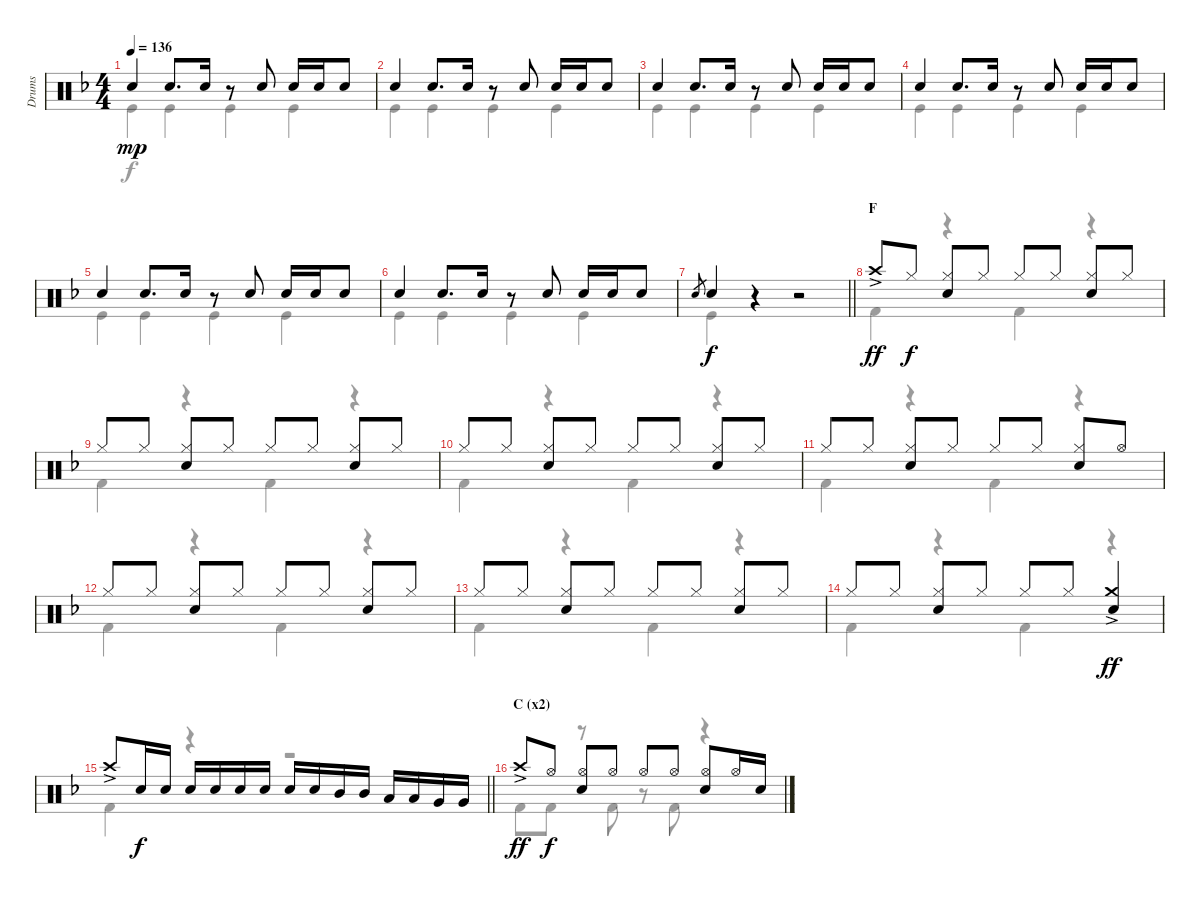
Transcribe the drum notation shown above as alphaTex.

\track ("Drums" "Drums") {instrument percussion}
\staff {score}
\articulation defaults
\voice
\ts (4 4)
\tempo 136
\clef neutral
\ks f "Electric Snare (hit)".4{dy mp} "Electric Snare (hit)".8{d} "Electric Snare (hit)".16
r.8 "Electric Snare (hit)".8 "Electric Snare (hit)".16 "Electric Snare (hit)".16 "Electric Snare (hit)".8 |
"Electric Snare (hit)".4 "Electric Snare (hit)".8{d} "Electric Snare (hit)".16 r.8 "Electric Snare (hit)".8 "Electric Snare (hit)".16 "Electric Snare (hit)".16 "Electric Snare (hit)".8 |
"Electric Snare (hit)".4 "Electric Snare (hit)".8{d} "Electric Snare (hit)".16 r.8 "Electric Snare (hit)".8 "Electric Snare (hit)".16 "Electric Snare (hit)".16 "Electric Snare (hit)".8 |
"Electric Snare (hit)".4 "Electric Snare (hit)".8{d} "Electric Snare (hit)".16 r.8 "Electric Snare (hit)".8 "Electric Snare (hit)".16 "Electric Snare (hit)".16 "Electric Snare (hit)".8 |
"Electric Snare (hit)".4 "Electric Snare (hit)".8{d} "Electric Snare (hit)".16 r.8 "Electric Snare (hit)".8 "Electric Snare (hit)".16 "Electric Snare (hit)".16 "Electric Snare (hit)".8 |
"Electric Snare (hit)".4 "Electric Snare (hit)".8{d} "Electric Snare (hit)".16 r.8 "Electric Snare (hit)".8 "Electric Snare (hit)".16 "Electric Snare (hit)".16 "Electric Snare (hit)".8 |
\barLineRight lightlight "Snare (hit) 2".8{gr} "Snare (hit) 2".4{dy f}
r.4 r.2 |
\section ("" "F")
"Crash high (hit)"{ac}.8{dy ff} "Hi-Hat (closed)".8{dy f} ("Hi-Hat (closed)" "Snare (hit) 2").8 "Hi-Hat (closed)".8 "Hi-Hat (closed)".8 "Hi-Hat (closed)".8 ("Hi-Hat (closed)" "Snare (hit) 2").8 "Hi-Hat (closed)".8 |
"Hi-Hat (closed)".8 "Hi-Hat (closed)".8 ("Hi-Hat (closed)" "Snare (hit) 2").8 "Hi-Hat (closed)".8 "Hi-Hat (closed)".8 "Hi-Hat (closed)".8 ("Hi-Hat (closed)" "Snare (hit) 2").8 "Hi-Hat (closed)".8 |
"Hi-Hat (closed)".8 "Hi-Hat (closed)".8 ("Hi-Hat (closed)" "Snare (hit) 2").8 "Hi-Hat (closed)".8 "Hi-Hat (closed)".8 "Hi-Hat (closed)".8 ("Hi-Hat (closed)" "Snare (hit) 2").8 "Hi-Hat (closed)".8 |
"Hi-Hat (closed)".8 "Hi-Hat (closed)".8 ("Hi-Hat (closed)" "Snare (hit) 2").8 "Hi-Hat (closed)".8 "Hi-Hat (closed)".8 "Hi-Hat (closed)".8 ("Hi-Hat (closed)" "Snare (hit) 2").8 "Hi-Hat (open)".8 |
"Hi-Hat (closed)".8 "Hi-Hat (closed)".8 ("Hi-Hat (closed)" "Snare (hit) 2").8 "Hi-Hat (closed)".8 "Hi-Hat (closed)".8 "Hi-Hat (closed)".8 ("Hi-Hat (closed)" "Snare (hit) 2").8 "Hi-Hat (closed)".8 |
"Hi-Hat (closed)".8 "Hi-Hat (closed)".8 ("Hi-Hat (closed)" "Snare (hit) 2").8 "Hi-Hat (closed)".8 "Hi-Hat (closed)".8 "Hi-Hat (closed)".8 ("Hi-Hat (closed)" "Snare (hit) 2").8 "Hi-Hat (closed)".8 |
"Hi-Hat (closed)".8 "Hi-Hat (closed)".8 ("Hi-Hat (closed)" "Snare (hit) 2").8 "Hi-Hat (closed)".8 "Hi-Hat (closed)".8 "Hi-Hat (closed)".8 ("Crash medium (hit)"{ac} "Snare (hit) 2").4{dy ff} |
\barLineRight lightlight "Crash high (hit)"{ac}.8 "Snare (hit) 2".16{dy f} "Snare (hit) 2".16 "Snare (hit) 2".16 "Snare (hit) 2".16 "Snare (hit) 2".16 "Snare (hit) 2".16 "Snare (hit) 2".16 "Snare (hit) 2".16 "Mid Tom (hit)".16 "Mid Tom (hit)".16 "Low Tom (hit)".16 "Low Tom (hit)".16 "Very Low Tom (hit)".16 "Very Low Tom (hit)".16
|
\section ("" "C (x2)")
"Crash high (hit)"{ac}.8{dy ff} "Hi-Hat (open)".8{dy f} ("Hi-Hat (open)" "Snare (hit) 2").8 "Hi-Hat (open)".8 "Hi-Hat (open)".8 "Hi-Hat (open)".8 ("Hi-Hat (open)" "Snare (hit) 2").8 "Hi-Hat (open)".16 "Snare (hit) 2".16
\voice
\clef neutral
\ottava regular
\simile none
\ks f "Kick (hit)".4{dy f} "Kick (hit)".4 "Kick (hit)".4 "Kick (hit)".4
|
"Kick (hit)".4 "Kick (hit)".4 "Kick (hit)".4 "Kick (hit)".4 |
"Kick (hit)".4 "Kick (hit)".4 "Kick (hit)".4 "Kick (hit)".4 |
"Kick (hit)".4 "Kick (hit)".4 "Kick (hit)".4 "Kick (hit)".4 |
"Kick (hit)".4 "Kick (hit)".4 "Kick (hit)".4 "Kick (hit)".4 |
"Kick (hit)".4 "Kick (hit)".4 "Kick (hit)".4 "Kick (hit)".4 |
\barLineRight lightlight "Kick (hit)".4
r.4 r.2 |
"Kick (hit) 2".4 r.4 "Kick (hit) 2".4 r.4 |
"Kick (hit) 2".4 r.4 "Kick (hit) 2".4 r.4 |
"Kick (hit) 2".4 r.4 "Kick (hit) 2".4 r.4 |
"Kick (hit) 2".4 r.4 "Kick (hit) 2".4 r.4 |
"Kick (hit) 2".4 r.4 "Kick (hit) 2".4 r.4 |
"Kick (hit) 2".4 r.4 "Kick (hit) 2".4 r.4 |
"Kick (hit) 2".4 r.4 "Kick (hit) 2".4 r.4 |
\barLineRight lightlight "Kick (hit) 2".4
r.4 r.2 |
"Kick (hit) 2".8 "Kick (hit) 2".8 r.8 "Kick (hit) 2".8 r.8 "Kick (hit) 2".8 r.4
